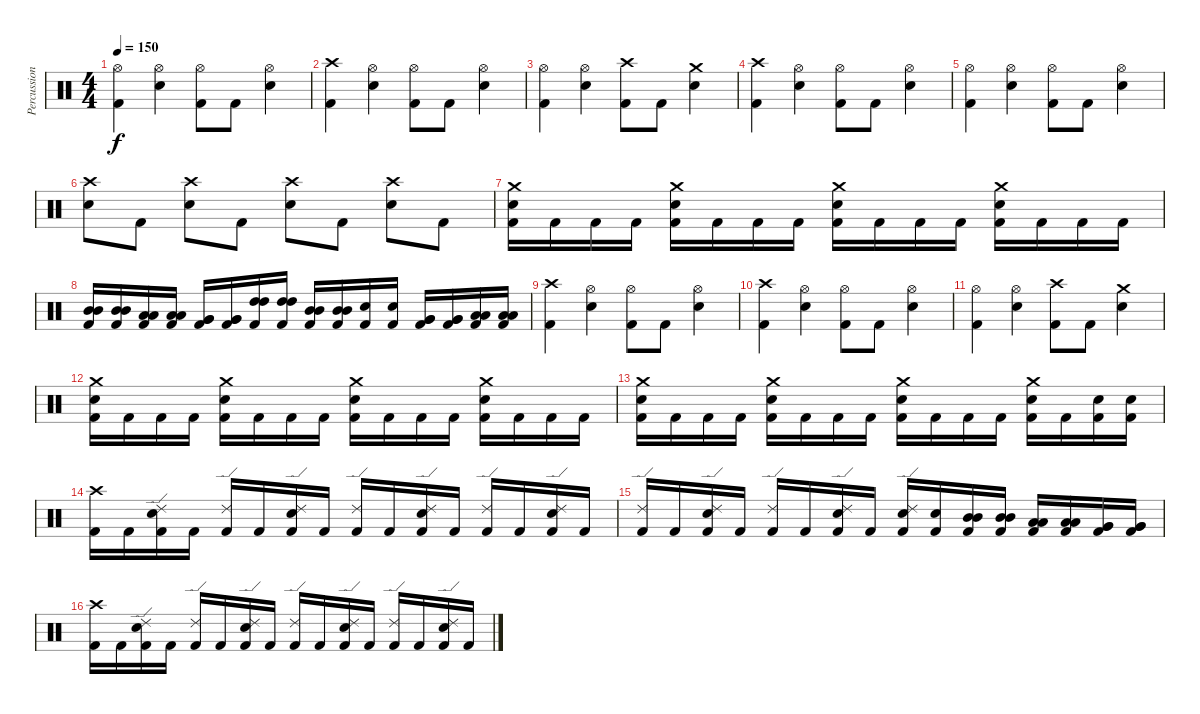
\track ("Percussion" "Percussion") {instrument percussion}
\staff {score}
\articulation defaults
\ts (4 4)
\tempo 150
\clef neutral
\ks c
("Kick (hit) 2" "Hi-Hat (open)").4{dy f} ("Snare (hit) 2" "Hi-Hat (open)").4 ("Kick (hit) 2" "Hi-Hat (open)").8 "Kick (hit) 2".8 ("Snare (hit) 2" "Hi-Hat (open)").4 |
("Kick (hit) 2" "Crash high (hit)").4 ("Snare (hit) 2" "Hi-Hat (open)").4 ("Kick (hit) 2" "Hi-Hat (open)").8 "Kick (hit) 2".8 ("Snare (hit) 2" "Hi-Hat (open)").4 |
("Kick (hit) 2" "Hi-Hat (open)").4 ("Snare (hit) 2" "Hi-Hat (open)").4 ("Kick (hit) 2" "Crash high (hit)").8 "Kick (hit) 2".8 ("Snare (hit) 2" "Crash medium (hit)").4 |
("Kick (hit) 2" "Crash high (hit)").4 ("Snare (hit) 2" "Hi-Hat (open)").4 ("Kick (hit) 2" "Hi-Hat (open)").8 "Kick (hit) 2".8 ("Snare (hit) 2" "Hi-Hat (open)").4 |
("Kick (hit) 2" "Hi-Hat (open)").4 ("Snare (hit) 2" "Hi-Hat (open)").4 ("Kick (hit) 2" "Hi-Hat (open)").8 "Kick (hit) 2".8 ("Snare (hit) 2" "Hi-Hat (open)").4 |
("Snare (hit) 2" "Crash high (hit)").8 "Kick (hit) 2".8 ("Snare (hit) 2" "Crash high (hit)").8 "Kick (hit) 2".8 ("Snare (hit) 2" "Crash high (hit)").8 "Kick (hit) 2".8 ("Snare (hit) 2" "Crash high (hit)").8 "Kick (hit) 2".8 |
("Kick (hit) 2" "Snare (hit) 2" "Crash medium (hit)").16 "Kick (hit) 2".16 "Kick (hit) 2".16 "Kick (hit) 2".16 ("Kick (hit) 2" "Snare (hit) 2" "Crash medium (hit)").16 "Kick (hit) 2".16 "Kick (hit) 2".16 "Kick (hit) 2".16 ("Kick (hit) 2" "Snare (hit) 2" "Crash medium (hit)").16 "Kick (hit) 2".16 "Kick (hit) 2".16 "Kick (hit) 2".16 ("Kick (hit) 2" "Snare (hit) 2" "Crash medium (hit)").16 "Kick (hit) 2".16 "Kick (hit) 2".16 "Kick (hit) 2".16 |
("Kick (hit) 2" "Mid Tom (hit)" "Mid Tom (hit)").16 ("Kick (hit) 2" "Mid Tom (hit)" "Mid Tom (hit)").16 ("Kick (hit) 2" "Low Tom (hit)" "Low Tom (hit)").16 ("Kick (hit) 2" "Low Tom (hit)" "Low Tom (hit)").16 ("Kick (hit) 2" "Very Low Tom (hit)" "Very Low Tom (hit)").16 ("Kick (hit) 2" "Very Low Tom (hit)" "Very Low Tom (hit)").16 ("Kick (hit) 2" "High Tom (hit)" "High Tom (hit)").16 ("Kick (hit) 2" "High Tom (hit)" "High Tom (hit)").16 ("Kick (hit) 2" "Mid Tom (hit)" "Mid Tom (hit)").16 ("Kick (hit) 2" "Mid Tom (hit)" "Mid Tom (hit)").16 ("Kick (hit) 2" "Snare (hit) 2").16 ("Kick (hit) 2" "Snare (hit) 2").16 ("Kick (hit) 2" "Very Low Tom (hit)" "Very Low Tom (hit)").16 ("Kick (hit) 2" "Very Low Tom (hit)" "Very Low Tom (hit)").16 ("Kick (hit) 2" "Low Floor Tom (hit)" "Low Floor Tom (hit)").16 ("Kick (hit) 2" "Low Floor Tom (hit)" "Low Floor Tom (hit)").16 |
("Kick (hit) 2" "Crash high (hit)").4 ("Snare (hit) 2" "Hi-Hat (open)").4 ("Kick (hit) 2" "Hi-Hat (open)").8 "Kick (hit) 2".8 ("Snare (hit) 2" "Hi-Hat (open)").4 |
("Kick (hit) 2" "Crash high (hit)").4 ("Snare (hit) 2" "Hi-Hat (open)").4 ("Kick (hit) 2" "Hi-Hat (open)").8 "Kick (hit) 2".8 ("Snare (hit) 2" "Hi-Hat (open)").4 |
("Kick (hit) 2" "Hi-Hat (open)").4 ("Snare (hit) 2" "Hi-Hat (open)").4 ("Kick (hit) 2" "Crash high (hit)").8 "Kick (hit) 2".8 ("Snare (hit) 2" "Crash medium (hit)").4 |
("Kick (hit) 2" "Snare (hit) 2" "Crash medium (hit)").16 "Kick (hit) 2".16 "Kick (hit) 2".16 "Kick (hit) 2".16 ("Kick (hit) 2" "Snare (hit) 2" "Crash medium (hit)").16 "Kick (hit) 2".16 "Kick (hit) 2".16 "Kick (hit) 2".16 ("Kick (hit) 2" "Snare (hit) 2" "Crash medium (hit)").16 "Kick (hit) 2".16 "Kick (hit) 2".16 "Kick (hit) 2".16 ("Kick (hit) 2" "Snare (hit) 2" "Crash medium (hit)").16 "Kick (hit) 2".16 "Kick (hit) 2".16 "Kick (hit) 2".16 |
("Kick (hit) 2" "Snare (hit) 2" "Crash medium (hit)").16 "Kick (hit) 2".16 "Kick (hit) 2".16 "Kick (hit) 2".16 ("Kick (hit) 2" "Snare (hit) 2" "Crash medium (hit)").16 "Kick (hit) 2".16 "Kick (hit) 2".16 "Kick (hit) 2".16 ("Kick (hit) 2" "Snare (hit) 2" "Crash medium (hit)").16 "Kick (hit) 2".16 "Kick (hit) 2".16 "Kick (hit) 2".16 ("Kick (hit) 2" "Snare (hit) 2" "Crash medium (hit)").16 "Kick (hit) 2".16 ("Kick (hit) 2" "Snare (hit) 2").16 ("Kick (hit) 2" "Snare (hit) 2").16 |
("Kick (hit) 2" "Crash high (hit)").16 "Kick (hit) 2".16 ("Kick (hit) 2" "Snare (hit) 2" "Ride (edge) 2").16 "Kick (hit) 2".16 ("Kick (hit) 2" "Ride (edge) 2").16 "Kick (hit) 2".16 ("Kick (hit) 2" "Snare (hit) 2" "Ride (edge) 2").16 "Kick (hit) 2".16 ("Kick (hit) 2" "Ride (edge) 2").16 "Kick (hit) 2".16 ("Kick (hit) 2" "Snare (hit) 2" "Ride (edge) 2").16 "Kick (hit) 2".16 ("Kick (hit) 2" "Ride (edge) 2").16 "Kick (hit) 2".16 ("Kick (hit) 2" "Snare (hit) 2" "Ride (edge) 2").16 "Kick (hit) 2".16 |
("Kick (hit) 2" "Ride (edge) 2").16 "Kick (hit) 2".16 ("Kick (hit) 2" "Snare (hit) 2" "Ride (edge) 2").16 "Kick (hit) 2".16 ("Kick (hit) 2" "Ride (edge) 2").16 "Kick (hit) 2".16 ("Kick (hit) 2" "Snare (hit) 2" "Ride (edge) 2").16 "Kick (hit) 2".16 ("Kick (hit) 2" "Snare (hit) 2" "Ride (edge) 2").16 ("Kick (hit) 2" "Snare (hit) 2").16 ("Kick (hit) 2" "Mid Tom (hit)" "Mid Tom (hit)").16 ("Kick (hit) 2" "Mid Tom (hit)" "Mid Tom (hit)").16 ("Kick (hit) 2" "Low Tom (hit)" "Low Tom (hit)").16 ("Kick (hit) 2" "Low Tom (hit)" "Low Tom (hit)").16 ("Kick (hit) 2" "Very Low Tom (hit)" "Very Low Tom (hit)").16 ("Kick (hit) 2" "Very Low Tom (hit)" "Very Low Tom (hit)").16 |
("Kick (hit) 2" "Crash high (hit)").16 "Kick (hit) 2".16 ("Kick (hit) 2" "Snare (hit) 2" "Ride (edge) 2").16 "Kick (hit) 2".16 ("Kick (hit) 2" "Ride (edge) 2").16 "Kick (hit) 2".16 ("Kick (hit) 2" "Snare (hit) 2" "Ride (edge) 2").16 "Kick (hit) 2".16 ("Kick (hit) 2" "Ride (edge) 2").16 "Kick (hit) 2".16 ("Kick (hit) 2" "Snare (hit) 2" "Ride (edge) 2").16 "Kick (hit) 2".16 ("Kick (hit) 2" "Ride (edge) 2").16 "Kick (hit) 2".16 ("Kick (hit) 2" "Snare (hit) 2" "Ride (edge) 2").16 "Kick (hit) 2".16
